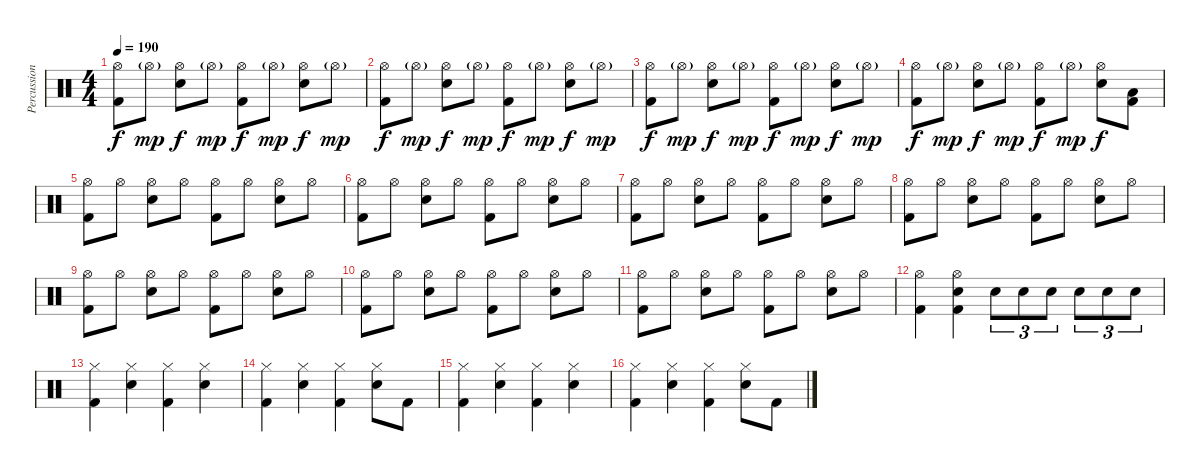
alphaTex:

\track ("Percussions" "Percussion") {instrument percussion}
\staff {score}
\articulation defaults
\ts (4 4)
\tempo 190
\clef neutral
\ks c
("Hi-Hat (open)" "Kick (hit) 2").8{dy f} "Hi-Hat (open)"{g}.8{dy mp} ("Hi-Hat (open)" "Snare (hit) 2").8{dy f} "Hi-Hat (open)"{g}.8{dy mp} ("Hi-Hat (open)" "Kick (hit) 2").8{dy f} "Hi-Hat (open)"{g}.8{dy mp} ("Hi-Hat (open)" "Snare (hit) 2").8{dy f} "Hi-Hat (open)"{g}.8{dy mp} |
("Hi-Hat (open)" "Kick (hit) 2").8{dy f} "Hi-Hat (open)"{g}.8{dy mp} ("Hi-Hat (open)" "Snare (hit) 2").8{dy f} "Hi-Hat (open)"{g}.8{dy mp} ("Hi-Hat (open)" "Kick (hit) 2").8{dy f} "Hi-Hat (open)"{g}.8{dy mp} ("Hi-Hat (open)" "Snare (hit) 2").8{dy f} "Hi-Hat (open)"{g}.8{dy mp} |
("Hi-Hat (open)" "Kick (hit) 2").8{dy f} "Hi-Hat (open)"{g}.8{dy mp} ("Hi-Hat (open)" "Snare (hit) 2").8{dy f} "Hi-Hat (open)"{g}.8{dy mp} ("Hi-Hat (open)" "Kick (hit) 2").8{dy f} "Hi-Hat (open)"{g}.8{dy mp} ("Hi-Hat (open)" "Snare (hit) 2").8{dy f} "Hi-Hat (open)"{g}.8{dy mp} |
("Hi-Hat (open)" "Kick (hit) 2").8{dy f} "Hi-Hat (open)"{g}.8{dy mp} ("Hi-Hat (open)" "Snare (hit) 2").8{dy f} "Hi-Hat (open)"{g}.8{dy mp} ("Hi-Hat (open)" "Kick (hit) 2").8{dy f} "Hi-Hat (open)"{g}.8{dy mp} ("Hi-Hat (open)" "Snare (hit) 2").8{dy f} ("Low Tom (hit)" "Kick (hit) 2").8 |
("Hi-Hat (open)" "Kick (hit) 2").8 "Hi-Hat (open)".8 ("Hi-Hat (open)" "Snare (hit) 2").8 "Hi-Hat (open)".8 ("Hi-Hat (open)" "Kick (hit) 2").8 "Hi-Hat (open)".8 ("Hi-Hat (open)" "Snare (hit) 2").8 "Hi-Hat (open)".8 |
("Hi-Hat (open)" "Kick (hit) 2").8 "Hi-Hat (open)".8 ("Hi-Hat (open)" "Snare (hit) 2").8 "Hi-Hat (open)".8 ("Hi-Hat (open)" "Kick (hit) 2").8 "Hi-Hat (open)".8 ("Hi-Hat (open)" "Snare (hit) 2").8 "Hi-Hat (open)".8 |
("Hi-Hat (open)" "Kick (hit) 2").8 "Hi-Hat (open)".8 ("Hi-Hat (open)" "Snare (hit) 2").8 "Hi-Hat (open)".8 ("Hi-Hat (open)" "Kick (hit) 2").8 "Hi-Hat (open)".8 ("Hi-Hat (open)" "Snare (hit) 2").8 "Hi-Hat (open)".8 |
("Hi-Hat (open)" "Kick (hit) 2").8 "Hi-Hat (open)".8 ("Hi-Hat (open)" "Snare (hit) 2").8 "Hi-Hat (open)".8 ("Hi-Hat (open)" "Kick (hit) 2").8 "Hi-Hat (open)".8 ("Hi-Hat (open)" "Snare (hit) 2").8 "Hi-Hat (open)".8 |
("Hi-Hat (open)" "Kick (hit) 2").8 "Hi-Hat (open)".8 ("Hi-Hat (open)" "Snare (hit) 2").8 "Hi-Hat (open)".8 ("Hi-Hat (open)" "Kick (hit) 2").8 "Hi-Hat (open)".8 ("Hi-Hat (open)" "Snare (hit) 2").8 "Hi-Hat (open)".8 |
("Hi-Hat (open)" "Kick (hit) 2").8 "Hi-Hat (open)".8 ("Hi-Hat (open)" "Snare (hit) 2").8 "Hi-Hat (open)".8 ("Hi-Hat (open)" "Kick (hit) 2").8 "Hi-Hat (open)".8 ("Hi-Hat (open)" "Snare (hit) 2").8 "Hi-Hat (open)".8 |
("Hi-Hat (open)" "Kick (hit) 2").8 "Hi-Hat (open)".8 ("Hi-Hat (open)" "Snare (hit) 2").8 "Hi-Hat (open)".8 ("Hi-Hat (open)" "Kick (hit) 2").8 "Hi-Hat (open)".8 ("Hi-Hat (open)" "Snare (hit) 2").8 "Hi-Hat (open)".8 |
("Hi-Hat (open)" "Kick (hit) 2").4 ("Hi-Hat (open)" "Snare (hit) 2" "Kick (hit) 2").4 "Snare (hit) 2".8{tu (3 2)} "Snare (hit) 2".8{tu (3 2)} "Snare (hit) 2".8{tu (3 2)} "Snare (hit) 2".8{tu (3 2)} "Snare (hit) 2".8{tu (3 2)} "Snare (hit) 2".8{tu (3 2)} |
("Hi-Hat (closed)" "Kick (hit) 2").4 ("Hi-Hat (closed)" "Snare (hit) 2").4 ("Hi-Hat (closed)" "Kick (hit) 2").4 ("Hi-Hat (closed)" "Snare (hit) 2").4 |
("Hi-Hat (closed)" "Kick (hit) 2").4 ("Hi-Hat (closed)" "Snare (hit) 2").4 ("Hi-Hat (closed)" "Kick (hit) 2").4 ("Hi-Hat (closed)" "Snare (hit) 2").8 "Kick (hit) 2".8 |
("Hi-Hat (closed)" "Kick (hit) 2").4 ("Hi-Hat (closed)" "Snare (hit) 2").4 ("Hi-Hat (closed)" "Kick (hit) 2").4 ("Hi-Hat (closed)" "Snare (hit) 2").4 |
("Hi-Hat (closed)" "Kick (hit) 2").4 ("Hi-Hat (closed)" "Snare (hit) 2").4 ("Hi-Hat (closed)" "Kick (hit) 2").4 ("Hi-Hat (closed)" "Snare (hit) 2").8 "Kick (hit) 2".8
